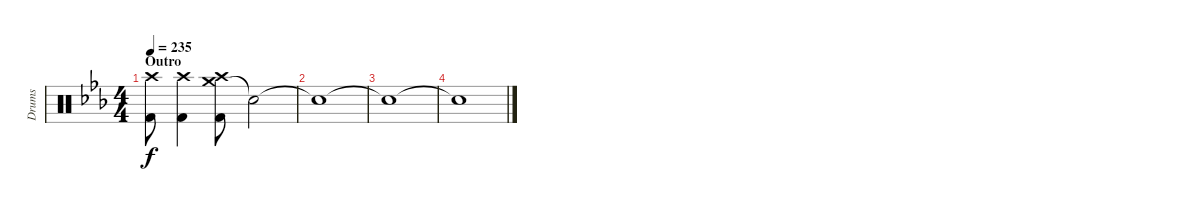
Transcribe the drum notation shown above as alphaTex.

\track ("Drums" "Drums") {instrument percussion}
\staff {score}
\articulation defaults
\ts (4 4)
\section ("" "Outro")
\tempo 235
\clef neutral
\ks cminor
("Crash high (hit)" "Kick (hit) 2").8{dy f} ("Crash high (hit)" "Kick (hit) 2").4 ("Crash medium (hit)" "Crash high (hit)" "Kick (hit) 2").8{volume 0} "Snare (hit)"{t}.2 |
"Snare (hit)"{t}.1 |
"Snare (hit)"{t}.1 |
"Snare (hit)"{t}.1
